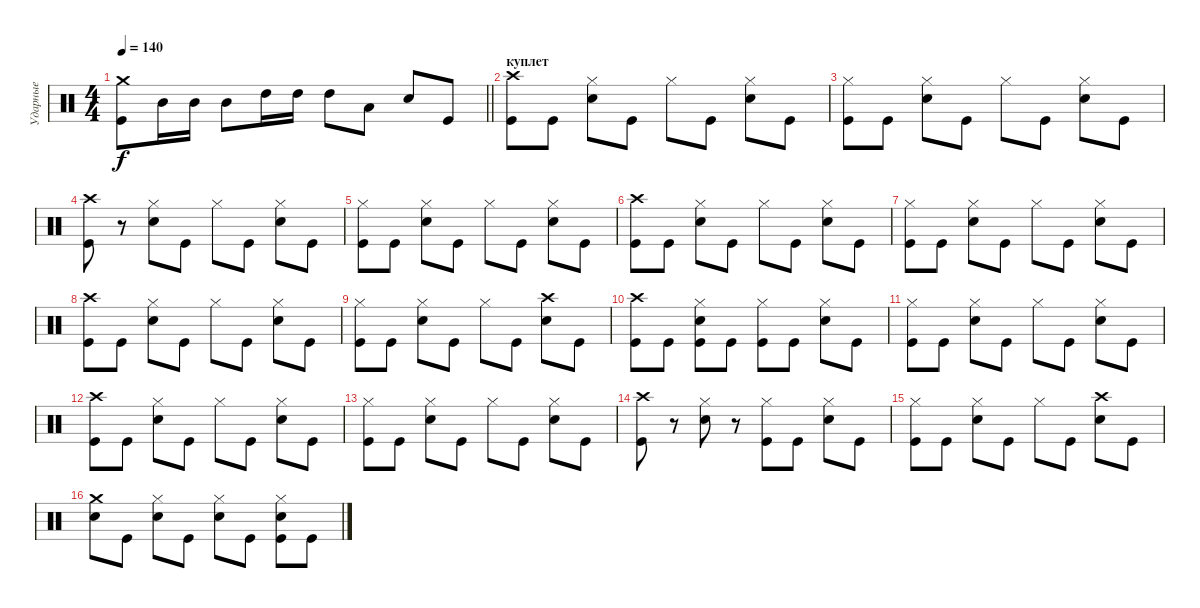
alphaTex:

\track ("Ударные" "Ударные") {instrument percussion}
\staff {score}
\articulation defaults
\ts (4 4)
\tempo 140
\clef neutral
\barLineRight lightlight
\ks c
("Crash medium (hit)"{t} "Kick (hit)").8{dy f} "Mid Tom (hit)".16 "Mid Tom (hit)".16 "Mid Tom (hit)".8 "High Tom (hit)".16 "High Tom (hit)".16 "High Tom (hit)".8 "Low Tom (hit)".8 "Electric Snare (hit)".8 "Kick (hit)".8 |
\section ("" "куплет")
("Crash high (hit)" "Kick (hit)").8 "Kick (hit)".8 ("Hi-Hat (closed)" "Electric Snare (hit)").8 "Kick (hit)".8 "Hi-Hat (closed)".8 "Kick (hit)".8 ("Hi-Hat (closed)" "Electric Snare (hit)").8 "Kick (hit)".8 |
("Hi-Hat (closed)" "Kick (hit)").8 "Kick (hit)".8 ("Hi-Hat (closed)" "Electric Snare (hit)").8 "Kick (hit)".8 "Hi-Hat (closed)".8 "Kick (hit)".8 ("Hi-Hat (closed)" "Electric Snare (hit)").8 "Kick (hit)".8 |
("Crash high (hit)" "Kick (hit)").8 r.8 ("Hi-Hat (closed)" "Electric Snare (hit)").8 "Kick (hit)".8 "Hi-Hat (closed)".8 "Kick (hit)".8 ("Hi-Hat (closed)" "Electric Snare (hit)").8 "Kick (hit)".8 |
("Hi-Hat (closed)" "Kick (hit)").8 "Kick (hit)".8 ("Hi-Hat (closed)" "Electric Snare (hit)").8 "Kick (hit)".8 "Hi-Hat (closed)".8 "Kick (hit)".8 ("Hi-Hat (closed)" "Electric Snare (hit)").8 "Kick (hit)".8 |
("Crash high (hit)" "Kick (hit)").8 "Kick (hit)".8 ("Hi-Hat (closed)" "Electric Snare (hit)").8 "Kick (hit)".8 "Hi-Hat (closed)".8 "Kick (hit)".8 ("Hi-Hat (closed)" "Electric Snare (hit)").8 "Kick (hit)".8 |
("Hi-Hat (closed)" "Kick (hit)").8 "Kick (hit)".8 ("Hi-Hat (closed)" "Electric Snare (hit)").8 "Kick (hit)".8 "Hi-Hat (closed)".8 "Kick (hit)".8 ("Hi-Hat (closed)" "Electric Snare (hit)").8 "Kick (hit)".8 |
("Crash high (hit)" "Kick (hit)").8 "Kick (hit)".8 ("Hi-Hat (closed)" "Electric Snare (hit)").8 "Kick (hit)".8 "Hi-Hat (closed)".8 "Kick (hit)".8 ("Hi-Hat (closed)" "Electric Snare (hit)").8 "Kick (hit)".8 |
("Hi-Hat (closed)" "Kick (hit)").8 "Kick (hit)".8 ("Hi-Hat (closed)" "Electric Snare (hit)").8 "Kick (hit)".8 "Hi-Hat (closed)".8 "Kick (hit)".8 ("Crash high (hit)" "Electric Snare (hit)").8 "Kick (hit)".8 |
("Crash high (hit)" "Kick (hit)").8 "Kick (hit)".8 ("Hi-Hat (closed)" "Electric Snare (hit)" "Kick (hit)").8 "Kick (hit)".8 ("Hi-Hat (closed)" "Kick (hit)").8 "Kick (hit)".8 ("Hi-Hat (closed)" "Electric Snare (hit)").8 "Kick (hit)".8 |
("Hi-Hat (closed)" "Kick (hit)").8 "Kick (hit)".8 ("Hi-Hat (closed)" "Electric Snare (hit)").8 "Kick (hit)".8 "Hi-Hat (closed)".8 "Kick (hit)".8 ("Hi-Hat (closed)" "Electric Snare (hit)").8 "Kick (hit)".8 |
("Crash high (hit)" "Kick (hit)").8 "Kick (hit)".8 ("Hi-Hat (closed)" "Electric Snare (hit)").8 "Kick (hit)".8 "Hi-Hat (closed)".8 "Kick (hit)".8 ("Hi-Hat (closed)" "Electric Snare (hit)").8 "Kick (hit)".8 |
("Hi-Hat (closed)" "Kick (hit)").8 "Kick (hit)".8 ("Hi-Hat (closed)" "Electric Snare (hit)").8 "Kick (hit)".8 "Hi-Hat (closed)".8 "Kick (hit)".8 ("Hi-Hat (closed)" "Electric Snare (hit)").8 "Kick (hit)".8 |
("Crash high (hit)" "Kick (hit)").8 r.8 ("Hi-Hat (closed)" "Electric Snare (hit)").8 r.8 ("Hi-Hat (closed)" "Kick (hit)").8 "Kick (hit)".8 ("Hi-Hat (closed)" "Electric Snare (hit)").8 "Kick (hit)".8 |
("Hi-Hat (closed)" "Kick (hit)").8 "Kick (hit)".8 ("Hi-Hat (closed)" "Electric Snare (hit)").8 "Kick (hit)".8 "Hi-Hat (closed)".8 "Kick (hit)".8 ("Crash high (hit)" "Electric Snare (hit)").8 "Kick (hit)".8 |
("Crash medium (hit)" "Electric Snare (hit)").8 "Kick (hit)".8 ("Hi-Hat (closed)" "Electric Snare (hit)").8 "Kick (hit)".8 ("Hi-Hat (closed)" "Electric Snare (hit)").8 "Kick (hit)".8 ("Hi-Hat (closed)" "Electric Snare (hit)" "Kick (hit)").8 "Kick (hit)".8
